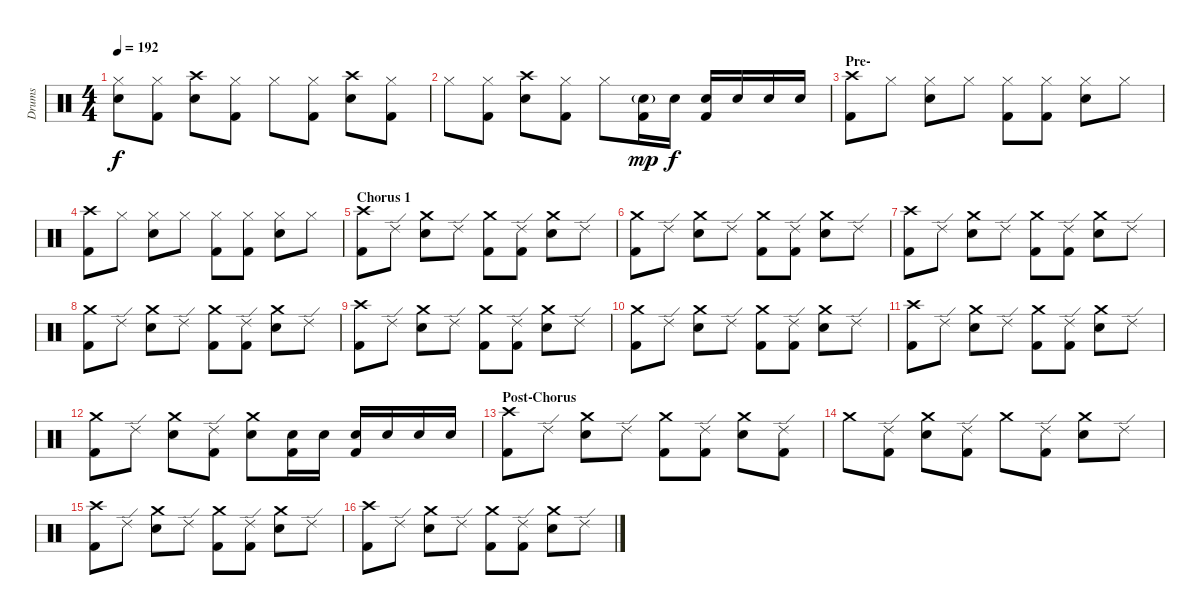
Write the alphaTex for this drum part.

\track ("Drums" "Drums") {instrument percussion}
\staff {score}
\articulation defaults
\ts (4 4)
\tempo 192
\clef neutral
\ks c
("Hi-Hat (closed)" "Electric Snare (hit)").8{dy f} ("Hi-Hat (closed)" "Kick (hit) 2").8 ("Crash high (hit)" "Electric Snare (hit)").8 ("Hi-Hat (closed)" "Kick (hit) 2").8 "Hi-Hat (closed)".8 ("Hi-Hat (closed)" "Kick (hit) 2").8 ("Crash high (hit)" "Electric Snare (hit)").8 ("Hi-Hat (closed)" "Kick (hit) 2").8 |
"Hi-Hat (closed)".8 ("Hi-Hat (closed)" "Kick (hit) 2").8 ("Crash high (hit)" "Electric Snare (hit)").8 ("Hi-Hat (closed)" "Kick (hit) 2").8 "Hi-Hat (closed)".8 ("Electric Snare (hit)"{g} "Kick (hit) 2").16{dy mp} "Electric Snare (hit)".16{dy f} ("Electric Snare (hit)" "Kick (hit) 2").16 "Electric Snare (hit)".16 "Electric Snare (hit)".16 "Electric Snare (hit)".16 |
\section ("" "Pre-")
("Crash high (hit)" "Kick (hit) 2").8 "Hi-Hat (closed)".8 ("Hi-Hat (closed)" "Electric Snare (hit)").8 "Hi-Hat (closed)".8 ("Hi-Hat (closed)" "Kick (hit) 2").8 ("Hi-Hat (closed)" "Kick (hit) 2").8 ("Hi-Hat (closed)" "Electric Snare (hit)").8 "Hi-Hat (closed)".8 |
("Crash high (hit)" "Kick (hit) 2").8 "Hi-Hat (closed)".8 ("Hi-Hat (closed)" "Electric Snare (hit)").8 "Hi-Hat (closed)".8 ("Hi-Hat (closed)" "Kick (hit) 2").8 ("Hi-Hat (closed)" "Kick (hit) 2").8 ("Hi-Hat (closed)" "Electric Snare (hit)").8 "Hi-Hat (closed)".8 |
\section ("" "Chorus 1")
("Crash high (hit)" "Kick (hit) 2").8 "Ride (edge) 2".8 ("Crash medium (hit)" "Electric Snare (hit)").8 "Ride (edge) 2".8 ("Crash medium (hit)" "Kick (hit) 2").8 ("Ride (edge) 2" "Kick (hit) 2").8 ("Crash medium (hit)" "Electric Snare (hit)").8 "Ride (edge) 2".8 |
("Crash medium (hit)" "Kick (hit) 2").8 "Ride (edge) 2".8 ("Crash medium (hit)" "Electric Snare (hit)").8 "Ride (edge) 2".8 ("Crash medium (hit)" "Kick (hit) 2").8 ("Ride (edge) 2" "Kick (hit) 2").8 ("Crash medium (hit)" "Electric Snare (hit)").8 "Ride (edge) 2".8 |
("Crash high (hit)" "Kick (hit) 2").8 "Ride (edge) 2".8 ("Crash medium (hit)" "Electric Snare (hit)").8 "Ride (edge) 2".8 ("Crash medium (hit)" "Kick (hit) 2").8 ("Ride (edge) 2" "Kick (hit) 2").8 ("Crash medium (hit)" "Electric Snare (hit)").8 "Ride (edge) 2".8 |
("Crash medium (hit)" "Kick (hit) 2").8 "Ride (edge) 2".8 ("Crash medium (hit)" "Electric Snare (hit)").8 "Ride (edge) 2".8 ("Crash medium (hit)" "Kick (hit) 2").8 ("Ride (edge) 2" "Kick (hit) 2").8 ("Crash medium (hit)" "Electric Snare (hit)").8 "Ride (edge) 2".8 |
("Crash high (hit)" "Kick (hit) 2").8 "Ride (edge) 2".8 ("Crash medium (hit)" "Electric Snare (hit)").8 "Ride (edge) 2".8 ("Crash medium (hit)" "Kick (hit) 2").8 ("Ride (edge) 2" "Kick (hit) 2").8 ("Crash medium (hit)" "Electric Snare (hit)").8 "Ride (edge) 2".8 |
("Crash medium (hit)" "Kick (hit) 2").8 "Ride (edge) 2".8 ("Crash medium (hit)" "Electric Snare (hit)").8 "Ride (edge) 2".8 ("Crash medium (hit)" "Kick (hit) 2").8 ("Ride (edge) 2" "Kick (hit) 2").8 ("Crash medium (hit)" "Electric Snare (hit)").8 "Ride (edge) 2".8 |
("Crash high (hit)" "Kick (hit) 2").8 "Ride (edge) 2".8 ("Crash medium (hit)" "Electric Snare (hit)").8 "Ride (edge) 2".8 ("Crash medium (hit)" "Kick (hit) 2").8 ("Ride (edge) 2" "Kick (hit) 2").8 ("Crash medium (hit)" "Electric Snare (hit)").8 "Ride (edge) 2".8 |
("Crash medium (hit)" "Kick (hit) 2").8 "Ride (edge) 2".8 ("Crash medium (hit)" "Electric Snare (hit)").8 ("Ride (edge) 2" "Kick (hit) 2").8 ("Crash medium (hit)" "Electric Snare (hit)").8 ("Electric Snare (hit)" "Kick (hit) 2").16 "Electric Snare (hit)".16 ("Electric Snare (hit)" "Kick (hit) 2").16 "Electric Snare (hit)".16 "Electric Snare (hit)".16 "Electric Snare (hit)".16 |
\section ("" "Post-Chorus")
("Crash high (hit)" "Kick (hit) 2").8 "Ride (edge) 2".8 ("Crash medium (hit)" "Electric Snare (hit)").8 "Ride (edge) 2".8 ("Crash medium (hit)" "Kick (hit) 2").8 ("Ride (edge) 2" "Kick (hit) 2").8 ("Crash medium (hit)" "Electric Snare (hit)").8 ("Ride (edge) 2" "Kick (hit) 2").8 |
"Crash medium (hit)".8 ("Ride (edge) 2" "Kick (hit) 2").8 ("Crash medium (hit)" "Electric Snare (hit)").8 ("Ride (edge) 2" "Kick (hit) 2").8 "Crash medium (hit)".8 ("Ride (edge) 2" "Kick (hit) 2").8 ("Crash medium (hit)" "Electric Snare (hit)").8 "Ride (edge) 2".8 |
("Crash high (hit)" "Kick (hit) 2").8 "Ride (edge) 2".8 ("Crash medium (hit)" "Electric Snare (hit)").8 "Ride (edge) 2".8 ("Crash medium (hit)" "Kick (hit) 2").8 ("Ride (edge) 2" "Kick (hit) 2").8 ("Crash medium (hit)" "Electric Snare (hit)").8 "Ride (edge) 2".8 |
("Crash high (hit)" "Kick (hit) 2").8 "Ride (edge) 2".8 ("Crash medium (hit)" "Electric Snare (hit)").8 "Ride (edge) 2".8 ("Crash medium (hit)" "Kick (hit) 2").8 ("Ride (edge) 2" "Kick (hit) 2").8 ("Crash medium (hit)" "Electric Snare (hit)").8 "Ride (edge) 2".8
